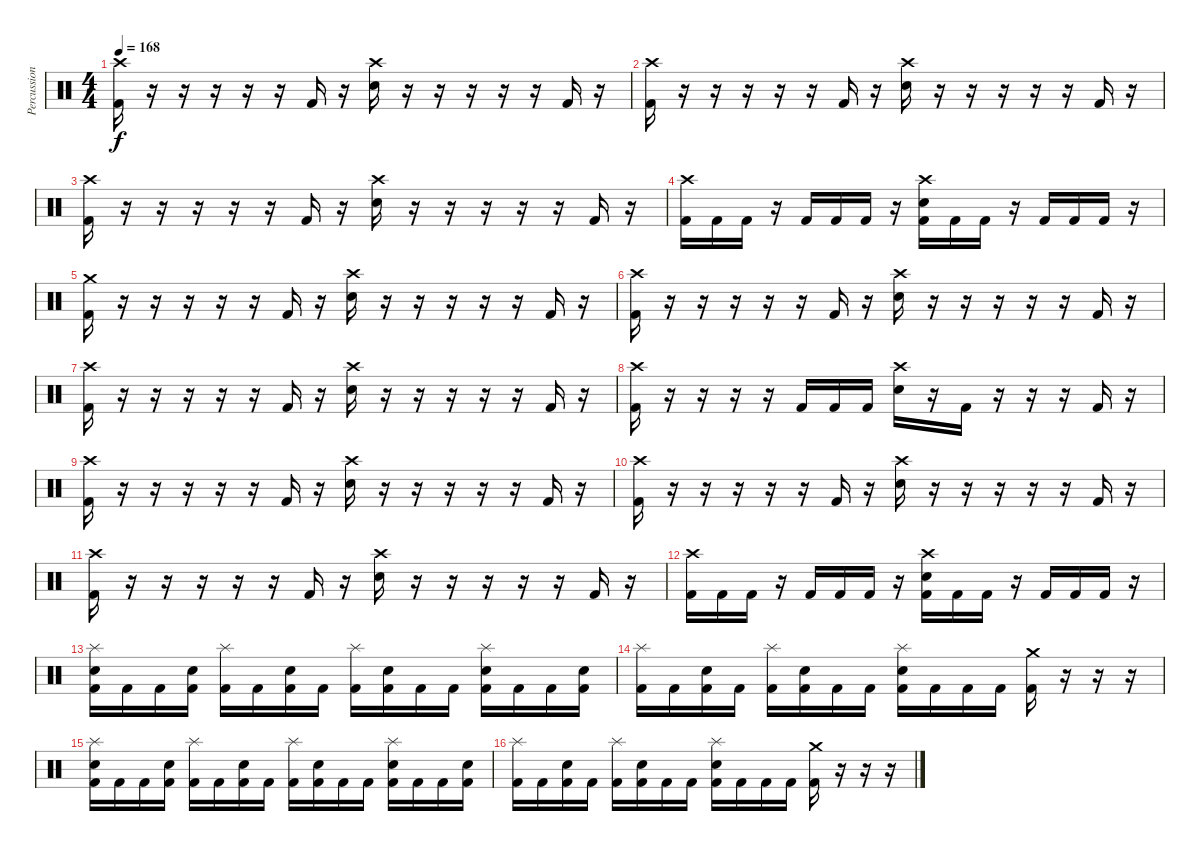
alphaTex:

\track ("Percussion" "Percussion") {instrument percussion}
\staff {score}
\articulation defaults
\ts (4 4)
\tempo 168
\clef neutral
\ks c
("Crash high (hit)" "Kick (hit) 2").16{dy f} r.16 r.16 r.16 r.16 r.16 "Kick (hit) 2".16 r.16 ("Crash high (hit)" "Electric Snare (hit)").16 r.16 r.16 r.16 r.16 r.16 "Kick (hit) 2".16 r.16 |
("Crash high (hit)" "Kick (hit) 2").16 r.16 r.16 r.16 r.16 r.16 "Kick (hit) 2".16 r.16 ("Crash high (hit)" "Electric Snare (hit)").16 r.16 r.16 r.16 r.16 r.16 "Kick (hit) 2".16 r.16 |
("Crash high (hit)" "Kick (hit) 2").16 r.16 r.16 r.16 r.16 r.16 "Kick (hit) 2".16 r.16 ("Crash high (hit)" "Electric Snare (hit)").16 r.16 r.16 r.16 r.16 r.16 "Kick (hit) 2".16 r.16 |
("Crash high (hit)" "Kick (hit) 2").16 "Kick (hit) 2".16 "Kick (hit) 2".16 r.16 "Kick (hit) 2".16 "Kick (hit) 2".16 "Kick (hit) 2".16 r.16 ("Crash high (hit)" "Electric Snare (hit)" "Kick (hit) 2").16 "Kick (hit) 2".16 "Kick (hit) 2".16 r.16 "Kick (hit) 2".16 "Kick (hit) 2".16 "Kick (hit) 2".16 r.16 |
("Crash medium (hit)" "Kick (hit) 2").16 r.16 r.16 r.16 r.16 r.16 "Kick (hit) 2".16 r.16 ("Crash high (hit)" "Electric Snare (hit)").16 r.16 r.16 r.16 r.16 r.16 "Kick (hit) 2".16 r.16 |
("Crash high (hit)" "Kick (hit) 2").16 r.16 r.16 r.16 r.16 r.16 "Kick (hit) 2".16 r.16 ("Crash high (hit)" "Electric Snare (hit)").16 r.16 r.16 r.16 r.16 r.16 "Kick (hit) 2".16 r.16 |
("Crash high (hit)" "Kick (hit) 2").16 r.16 r.16 r.16 r.16 r.16 "Kick (hit) 2".16 r.16 ("Crash high (hit)" "Electric Snare (hit)").16 r.16 r.16 r.16 r.16 r.16 "Kick (hit) 2".16 r.16 |
("Crash high (hit)" "Kick (hit) 2").16 r.16 r.16 r.16 r.16 "Kick (hit) 2".16 "Kick (hit) 2".16 "Kick (hit) 2".16 ("Crash high (hit)" "Electric Snare (hit)").16 r.16 "Kick (hit) 2".16 r.16 r.16 r.16 "Kick (hit) 2".16 r.16 |
("Crash high (hit)" "Kick (hit) 2").16 r.16 r.16 r.16 r.16 r.16 "Kick (hit) 2".16 r.16 ("Crash high (hit)" "Electric Snare (hit)").16 r.16 r.16 r.16 r.16 r.16 "Kick (hit) 2".16 r.16 |
("Crash high (hit)" "Kick (hit) 2").16 r.16 r.16 r.16 r.16 r.16 "Kick (hit) 2".16 r.16 ("Crash high (hit)" "Electric Snare (hit)").16 r.16 r.16 r.16 r.16 r.16 "Kick (hit) 2".16 r.16 |
("Crash high (hit)" "Kick (hit) 2").16 r.16 r.16 r.16 r.16 r.16 "Kick (hit) 2".16 r.16 ("Crash high (hit)" "Electric Snare (hit)").16 r.16 r.16 r.16 r.16 r.16 "Kick (hit) 2".16 r.16 |
("Crash high (hit)" "Kick (hit) 2").16 "Kick (hit) 2".16 "Kick (hit) 2".16 r.16 "Kick (hit) 2".16 "Kick (hit) 2".16 "Kick (hit) 2".16 r.16 ("Crash high (hit)" "Electric Snare (hit)" "Kick (hit) 2").16 "Kick (hit) 2".16 "Kick (hit) 2".16 r.16 "Kick (hit) 2".16 "Kick (hit) 2".16 "Kick (hit) 2".16 r.16 |
("Splash (hit)" "Electric Snare (hit)" "Kick (hit) 2").16 "Kick (hit) 2".16 "Kick (hit) 2".16 ("Electric Snare (hit)" "Kick (hit) 2").16 ("Splash (hit)" "Kick (hit) 2").16 "Kick (hit) 2".16 ("Electric Snare (hit)" "Kick (hit) 2").16 "Kick (hit) 2".16 ("Splash (hit)" "Kick (hit) 2").16 ("Electric Snare (hit)" "Kick (hit) 2").16 "Kick (hit) 2".16 "Kick (hit) 2".16 ("Splash (hit)" "Electric Snare (hit)" "Kick (hit) 2").16 "Kick (hit) 2".16 "Kick (hit) 2".16 ("Electric Snare (hit)" "Kick (hit) 2").16 |
("Splash (hit)" "Kick (hit) 2").16 "Kick (hit) 2".16 ("Electric Snare (hit)" "Kick (hit) 2").16 "Kick (hit) 2".16 ("Splash (hit)" "Kick (hit) 2").16 ("Electric Snare (hit)" "Kick (hit) 2").16 "Kick (hit) 2".16 "Kick (hit) 2".16 ("Splash (hit)" "Electric Snare (hit)" "Kick (hit) 2").16 "Kick (hit) 2".16 "Kick (hit) 2".16 "Kick (hit) 2".16 ("Crash medium (hit)" "Kick (hit) 2").16 r.16 r.16 r.16 |
("Splash (hit)" "Electric Snare (hit)" "Kick (hit) 2").16 "Kick (hit) 2".16 "Kick (hit) 2".16 ("Electric Snare (hit)" "Kick (hit) 2").16 ("Splash (hit)" "Kick (hit) 2").16 "Kick (hit) 2".16 ("Electric Snare (hit)" "Kick (hit) 2").16 "Kick (hit) 2".16 ("Splash (hit)" "Kick (hit) 2").16 ("Electric Snare (hit)" "Kick (hit) 2").16 "Kick (hit) 2".16 "Kick (hit) 2".16 ("Splash (hit)" "Electric Snare (hit)" "Kick (hit) 2").16 "Kick (hit) 2".16 "Kick (hit) 2".16 ("Electric Snare (hit)" "Kick (hit) 2").16 |
("Splash (hit)" "Kick (hit) 2").16 "Kick (hit) 2".16 ("Electric Snare (hit)" "Kick (hit) 2").16 "Kick (hit) 2".16 ("Splash (hit)" "Kick (hit) 2").16 ("Electric Snare (hit)" "Kick (hit) 2").16 "Kick (hit) 2".16 "Kick (hit) 2".16 ("Splash (hit)" "Electric Snare (hit)" "Kick (hit) 2").16 "Kick (hit) 2".16 "Kick (hit) 2".16 "Kick (hit) 2".16 ("Crash medium (hit)" "Kick (hit) 2").16 r.16 r.16 r.16
